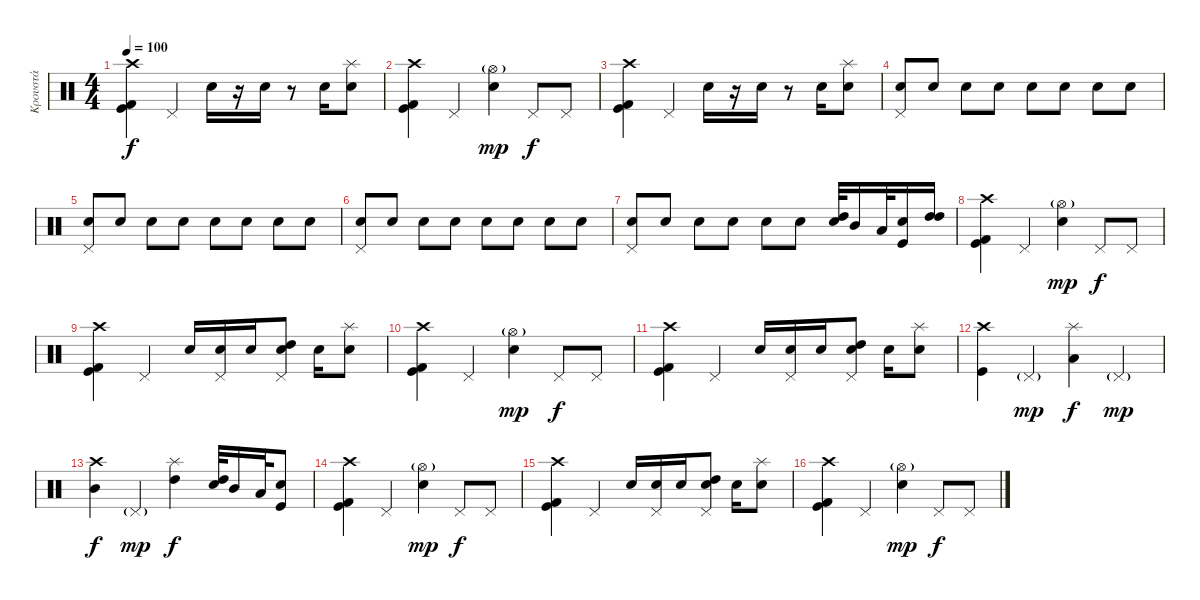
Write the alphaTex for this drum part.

\track ("Κρουστά" "Κρουστά") {instrument percussion}
\staff {score}
\articulation defaults
\ts (4 4)
\tempo 100
\clef neutral
\ks c
("Kick (hit) 2" "Kick (hit)" "Crash high (hit)").4{dy f} "Pedal Hi-Hat (hit)".4 "Snare (hit) 2".16 r.16 "Snare (hit) 2".16 r.8 "Snare (hit) 2".16 ("Snare (hit) 2" "Splash (hit)").8 |
("Kick (hit) 2" "Kick (hit)" "Crash high (hit)").4 "Pedal Hi-Hat (hit)".4 ("Snare (hit) 2" "Hi-Hat (open)"{g}).4{dy mp} "Pedal Hi-Hat (hit)".8{dy f} "Pedal Hi-Hat (hit)".8 |
("Kick (hit) 2" "Kick (hit)" "Crash high (hit)").4 "Pedal Hi-Hat (hit)".4 "Snare (hit) 2".16 r.16 "Snare (hit) 2".16 r.8 "Snare (hit) 2".16 ("Snare (hit) 2" "Splash (hit)").8 |
("Snare (hit) 2" "Pedal Hi-Hat (hit)").8 "Snare (hit) 2".8 "Snare (hit) 2".8 "Snare (hit) 2".8 "Snare (hit) 2".8 "Snare (hit) 2".8 "Snare (hit) 2".8 "Snare (hit) 2".8 |
("Snare (hit) 2" "Pedal Hi-Hat (hit)").8 "Snare (hit) 2".8 "Snare (hit) 2".8 "Snare (hit) 2".8 "Snare (hit) 2".8 "Snare (hit) 2".8 "Snare (hit) 2".8 "Snare (hit) 2".8 |
("Snare (hit) 2" "Pedal Hi-Hat (hit)").8 "Snare (hit) 2".8 "Snare (hit) 2".8 "Snare (hit) 2".8 "Snare (hit) 2".8 "Snare (hit) 2".8 "Snare (hit) 2".8 "Snare (hit) 2".8 |
("Snare (hit) 2" "Pedal Hi-Hat (hit)").8 "Snare (hit) 2".8 "Snare (hit) 2".8 "Snare (hit) 2".8 "Snare (hit) 2".8 "Snare (hit) 2".8 ("High Tom (hit)" "Snare (hit) 2").32 "Mid Tom (hit)".16 "Low Tom (hit)".32 ("Kick (hit)" "Snare (hit) 2").16 ("High Tom (hit)" "High Tom (hit)").16 |
("Kick (hit) 2" "Kick (hit)" "Crash high (hit)").4 "Pedal Hi-Hat (hit)".4 ("Snare (hit) 2" "Hi-Hat (open)"{g}).4{dy mp} "Pedal Hi-Hat (hit)".8{dy f} "Pedal Hi-Hat (hit)".8 |
("Kick (hit) 2" "Kick (hit)" "Crash high (hit)").4 "Pedal Hi-Hat (hit)".4 "Snare (hit) 2".16 ("Snare (hit) 2" "Pedal Hi-Hat (hit)").16 "Snare (hit) 2".16 ("Snare (hit) 2" "Pedal Hi-Hat (hit)" "High Tom (hit)").8 "Snare (hit) 2".16 ("Snare (hit) 2" "Splash (hit)").8 |
("Kick (hit) 2" "Kick (hit)" "Crash high (hit)").4 "Pedal Hi-Hat (hit)".4 ("Snare (hit) 2" "Hi-Hat (open)"{g}).4{dy mp} "Pedal Hi-Hat (hit)".8{dy f} "Pedal Hi-Hat (hit)".8 |
("Kick (hit) 2" "Kick (hit)" "Crash high (hit)").4 "Pedal Hi-Hat (hit)".4 "Snare (hit) 2".16 ("Snare (hit) 2" "Pedal Hi-Hat (hit)").16 "Snare (hit) 2".16 ("Snare (hit) 2" "Pedal Hi-Hat (hit)" "High Tom (hit)").8 "Snare (hit) 2".16 ("Snare (hit) 2" "Splash (hit)").8 |
("Kick (hit)" "Crash high (hit)").4 "Pedal Hi-Hat (hit)"{g}.4{dy mp} ("Low Tom (hit)" "Splash (hit)").4{dy f} "Pedal Hi-Hat (hit)"{g}.4{dy mp} |
("Mid Tom (hit)" "Crash high (hit)").4{dy f} "Pedal Hi-Hat (hit)"{g}.4{dy mp} ("High Tom (hit)" "Splash (hit)").4{dy f} ("High Tom (hit)" "Snare (hit) 2").32 "Mid Tom (hit)".16 "Low Tom (hit)".32 ("Kick (hit)" "Snare (hit) 2").8 |
("Kick (hit) 2" "Kick (hit)" "Crash high (hit)").4 "Pedal Hi-Hat (hit)".4 ("Snare (hit) 2" "Hi-Hat (open)"{g}).4{dy mp} "Pedal Hi-Hat (hit)".8{dy f} "Pedal Hi-Hat (hit)".8 |
("Kick (hit) 2" "Kick (hit)" "Crash high (hit)").4 "Pedal Hi-Hat (hit)".4 "Snare (hit) 2".16 ("Snare (hit) 2" "Pedal Hi-Hat (hit)").16 "Snare (hit) 2".16 ("Snare (hit) 2" "Pedal Hi-Hat (hit)" "High Tom (hit)").8 "Snare (hit) 2".16 ("Snare (hit) 2" "Splash (hit)").8 |
("Kick (hit) 2" "Kick (hit)" "Crash high (hit)").4 "Pedal Hi-Hat (hit)".4 ("Snare (hit) 2" "Hi-Hat (open)"{g}).4{dy mp} "Pedal Hi-Hat (hit)".8{dy f} "Pedal Hi-Hat (hit)".8
